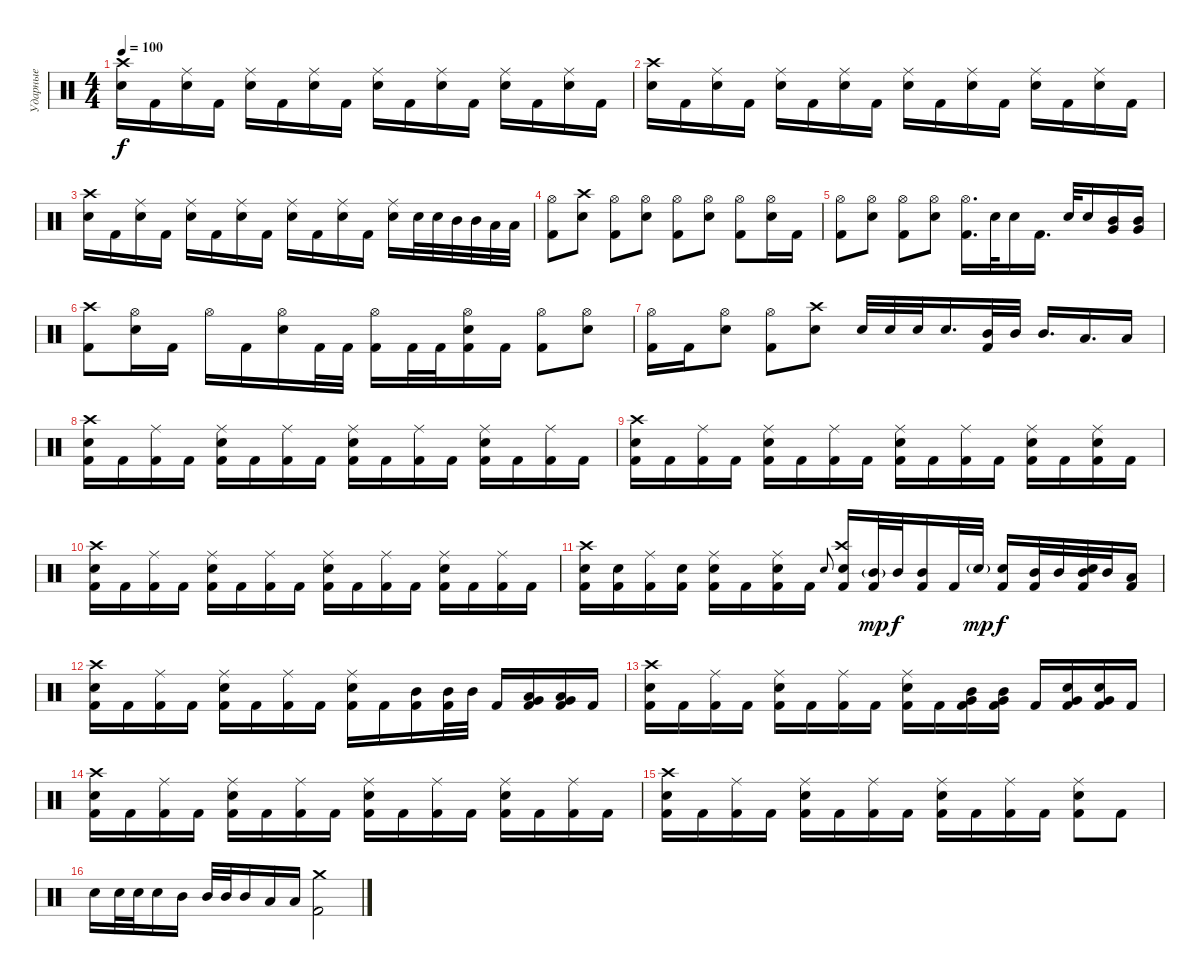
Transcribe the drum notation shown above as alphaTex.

\track ("Ударные" "Ударные") {instrument percussion}
\staff
\articulation defaults
\ts (4 4)
\tempo 100
\clef neutral
\ks c
("Electric Snare (hit)" "Crash high (hit)").16{dy f} "Kick (hit) 2".16 ("Electric Snare (hit)" "Ride (middle)").16 "Kick (hit) 2".16 ("Electric Snare (hit)" "Ride (middle)").16 "Kick (hit) 2".16 ("Electric Snare (hit)" "Ride (middle)").16 "Kick (hit) 2".16 ("Electric Snare (hit)" "Ride (middle)").16 "Kick (hit) 2".16 ("Electric Snare (hit)" "Ride (middle)").16 "Kick (hit) 2".16 ("Electric Snare (hit)" "Ride (middle)").16 "Kick (hit) 2".16 ("Electric Snare (hit)" "Ride (middle)").16 "Kick (hit) 2".16 |
("Electric Snare (hit)" "Crash high (hit)").16 "Kick (hit) 2".16 ("Electric Snare (hit)" "Ride (middle)").16 "Kick (hit) 2".16 ("Electric Snare (hit)" "Ride (middle)").16 "Kick (hit) 2".16 ("Electric Snare (hit)" "Ride (middle)").16 "Kick (hit) 2".16 ("Electric Snare (hit)" "Ride (middle)").16 "Kick (hit) 2".16 ("Electric Snare (hit)" "Ride (middle)").16 "Kick (hit) 2".16 ("Electric Snare (hit)" "Ride (middle)").16 "Kick (hit) 2".16 ("Electric Snare (hit)" "Ride (middle)").16 "Kick (hit) 2".16 |
("Electric Snare (hit)" "Crash high (hit)").16 "Kick (hit) 2".16 ("Electric Snare (hit)" "Ride (middle)").16 "Kick (hit) 2".16 ("Electric Snare (hit)" "Ride (middle)").16 "Kick (hit) 2".16 ("Electric Snare (hit)" "Ride (middle)").16 "Kick (hit) 2".16 ("Electric Snare (hit)" "Ride (middle)").16 "Kick (hit) 2".16 ("Electric Snare (hit)" "Ride (middle)").16 "Kick (hit) 2".16 ("Electric Snare (hit)" "Ride (middle)").16 "Electric Snare (hit)".32 "Electric Snare (hit)".32 "Mid Tom (hit)".32 "Mid Tom (hit)".32 "Low Tom (hit)".32 "Low Tom (hit)".32 |
("Kick (hit) 2" "Hi-Hat (open)").8 ("Electric Snare (hit)" "Crash high (hit)").8 ("Kick (hit) 2" "Hi-Hat (open)").8 ("Electric Snare (hit)" "Hi-Hat (open)").8 ("Kick (hit) 2" "Hi-Hat (open)").8 ("Electric Snare (hit)" "Hi-Hat (open)").8 ("Kick (hit) 2" "Hi-Hat (open)").8 ("Electric Snare (hit)" "Hi-Hat (open)").16 "Kick (hit) 2".16 |
("Kick (hit) 2" "Hi-Hat (open)").8 ("Electric Snare (hit)" "Hi-Hat (open)").8 ("Kick (hit) 2" "Hi-Hat (open)").8 ("Electric Snare (hit)" "Hi-Hat (open)").8 ("Kick (hit) 2" "Hi-Hat (open)").16{d} "Electric Snare (hit)".32 "Electric Snare (hit)".16 "Kick (hit) 2".16{d} "Electric Snare (hit)".32 "Electric Snare (hit)".16 ("Mid Tom (hit)" "Very Low Tom (hit)").16 ("Mid Tom (hit)" "Very Low Tom (hit)").16 |
("Kick (hit) 2" "Crash high (hit)").8 ("Electric Snare (hit)" "Hi-Hat (open)").16 "Kick (hit) 2".16 "Hi-Hat (open)".16 "Kick (hit) 2".16 ("Electric Snare (hit)" "Hi-Hat (open)").16 "Kick (hit) 2".32 "Kick (hit) 2".32 ("Kick (hit) 2" "Hi-Hat (open)").16 "Kick (hit) 2".32 "Kick (hit) 2".32 ("Electric Snare (hit)" "Hi-Hat (open)" "Kick (hit) 2").16 "Kick (hit) 2".16 ("Kick (hit) 2" "Hi-Hat (open)").8 ("Electric Snare (hit)" "Hi-Hat (open)").8 |
("Kick (hit) 2" "Hi-Hat (open)").16 "Kick (hit) 2".16 ("Electric Snare (hit)" "Hi-Hat (open)").8 ("Kick (hit) 2" "Hi-Hat (open)").8 ("Electric Snare (hit)" "Crash high (hit)").8 "Electric Snare (hit)".32 "Electric Snare (hit)".32 "Electric Snare (hit)".32 "Electric Snare (hit)".16{d} ("Kick (hit) 2" "Mid Tom (hit)").32 "Mid Tom (hit)".32 "Mid Tom (hit)".16{d} "Low Tom (hit)".16{d} "Low Tom (hit)".16 |
("Kick (hit) 2" "Electric Snare (hit)" "Crash high (hit)").16 "Kick (hit) 2".16 ("Kick (hit) 2" "Ride (middle)").16 "Kick (hit) 2".16 ("Kick (hit) 2" "Electric Snare (hit)" "Ride (middle)").16 "Kick (hit) 2".16 ("Kick (hit) 2" "Ride (middle)").16 "Kick (hit) 2".16 ("Kick (hit) 2" "Electric Snare (hit)" "Ride (middle)").16 "Kick (hit) 2".16 ("Kick (hit) 2" "Ride (middle)").16 "Kick (hit) 2".16 ("Kick (hit) 2" "Electric Snare (hit)" "Ride (middle)").16 "Kick (hit) 2".16 ("Kick (hit) 2" "Ride (middle)").16 "Kick (hit) 2".16 |
("Kick (hit) 2" "Crash high (hit)" "Electric Snare (hit)").16 "Kick (hit) 2".16 ("Kick (hit) 2" "Ride (middle)").16 "Kick (hit) 2".16 ("Kick (hit) 2" "Electric Snare (hit)" "Ride (middle)").16 "Kick (hit) 2".16 ("Kick (hit) 2" "Ride (middle)").16 "Kick (hit) 2".16 ("Kick (hit) 2" "Electric Snare (hit)" "Ride (middle)").16 "Kick (hit) 2".16 ("Kick (hit) 2" "Ride (middle)").16 "Kick (hit) 2".16 ("Kick (hit) 2" "Electric Snare (hit)" "Ride (middle)").16 "Kick (hit) 2".16 ("Kick (hit) 2" "Electric Snare (hit)" "Ride (middle)").16 "Kick (hit) 2".16 |
("Kick (hit) 2" "Electric Snare (hit)" "Crash high (hit)").16 "Kick (hit) 2".16 ("Kick (hit) 2" "Ride (middle)").16 "Kick (hit) 2".16 ("Kick (hit) 2" "Electric Snare (hit)" "Ride (middle)").16 "Kick (hit) 2".16 ("Kick (hit) 2" "Ride (middle)").16 "Kick (hit) 2".16 ("Kick (hit) 2" "Electric Snare (hit)" "Ride (middle)").16 "Kick (hit) 2".16 ("Kick (hit) 2" "Ride (middle)").16 "Kick (hit) 2".16 ("Kick (hit) 2" "Electric Snare (hit)" "Ride (middle)").16 "Kick (hit) 2".16 ("Kick (hit) 2" "Ride (middle)").16 "Kick (hit) 2".16 |
("Kick (hit) 2" "Crash high (hit)" "Electric Snare (hit)").16 ("Kick (hit) 2" "Electric Snare (hit)").16 ("Kick (hit) 2" "Ride (middle)").16 ("Kick (hit) 2" "Electric Snare (hit)").16 ("Kick (hit) 2" "Electric Snare (hit)" "Ride (middle)").16 "Kick (hit) 2".16 ("Kick (hit) 2" "Electric Snare (hit)" "Ride (middle)").16 "Kick (hit) 2".16 "Electric Snare (hit)".8{gr onbeat} ("Kick (hit) 2" "Electric Snare (hit)" "Crash high (hit)").16 ("Kick (hit) 2" "Mid Tom (hit)"{g}).32{dy mp} "Mid Tom (hit)".32{dy f} ("Kick (hit) 2" "Mid Tom (hit)").16 "Kick (hit) 2".32 "Electric Snare (hit)"{g}.32{dy mp} ("Kick (hit) 2" "Electric Snare (hit)").16{dy f} ("Kick (hit) 2" "Mid Tom (hit)").32 "Mid Tom (hit)".32 ("Kick (hit) 2" "Mid Tom (hit)" "Electric Snare (hit)").32 "Mid Tom (hit)".32 ("Kick (hit) 2" "Low Tom (hit)").16 |
("Kick (hit) 2" "Electric Snare (hit)" "Crash high (hit)").16 "Kick (hit) 2".16 ("Kick (hit) 2" "Ride (middle)").16 "Kick (hit) 2".16 ("Kick (hit) 2" "Electric Snare (hit)" "Ride (middle)").16 "Kick (hit) 2".16 ("Kick (hit) 2" "Ride (middle)").16 "Kick (hit) 2".16 ("Kick (hit) 2" "Electric Snare (hit)" "Ride (middle)").16 "Kick (hit) 2".16 ("Kick (hit) 2" "Mid Tom (hit)").16 ("Kick (hit) 2" "Mid Tom (hit)").32 "Mid Tom (hit)".32 "Kick (hit) 2".16 ("Kick (hit) 2" "Low Tom (hit)" "Very Low Tom (hit)").16 ("Kick (hit) 2" "Low Tom (hit)" "Very Low Tom (hit)").16 "Kick (hit) 2".16 |
("Kick (hit) 2" "Crash high (hit)" "Electric Snare (hit)").16 "Kick (hit) 2".16 ("Kick (hit) 2" "Ride (middle)").16 "Kick (hit) 2".16 ("Kick (hit) 2" "Electric Snare (hit)" "Ride (middle)").16 "Kick (hit) 2".16 ("Kick (hit) 2" "Ride (middle)").16 "Kick (hit) 2".16 ("Kick (hit) 2" "Electric Snare (hit)" "Ride (middle)").16 "Kick (hit) 2".16 ("Kick (hit) 2" "Mid Tom (hit)" "Very Low Tom (hit)").16 ("Kick (hit) 2" "Mid Tom (hit)" "Very Low Tom (hit)").16 "Kick (hit) 2".16 ("Kick (hit) 2" "Electric Snare (hit)" "Very Low Tom (hit)").16 ("Kick (hit) 2" "Electric Snare (hit)" "Very Low Tom (hit)").16 "Kick (hit) 2".16 |
("Kick (hit) 2" "Electric Snare (hit)" "Crash high (hit)").16 "Kick (hit) 2".16 ("Kick (hit) 2" "Ride (middle)").16 "Kick (hit) 2".16 ("Kick (hit) 2" "Electric Snare (hit)" "Ride (middle)").16 "Kick (hit) 2".16 ("Kick (hit) 2" "Ride (middle)").16 "Kick (hit) 2".16 ("Kick (hit) 2" "Electric Snare (hit)" "Ride (middle)").16 "Kick (hit) 2".16 ("Kick (hit) 2" "Ride (middle)").16 "Kick (hit) 2".16 ("Kick (hit) 2" "Electric Snare (hit)" "Ride (middle)").16 "Kick (hit) 2".16 ("Kick (hit) 2" "Ride (middle)").16 "Kick (hit) 2".16 |
("Kick (hit) 2" "Crash high (hit)" "Electric Snare (hit)").16 "Kick (hit) 2".16 ("Kick (hit) 2" "Ride (middle)").16 "Kick (hit) 2".16 ("Kick (hit) 2" "Electric Snare (hit)" "Ride (middle)").16 "Kick (hit) 2".16 ("Kick (hit) 2" "Ride (middle)").16 "Kick (hit) 2".16 ("Kick (hit) 2" "Electric Snare (hit)" "Ride (middle)").16 "Kick (hit) 2".16 ("Kick (hit) 2" "Ride (middle)").16 "Kick (hit) 2".16 ("Kick (hit) 2" "Electric Snare (hit)" "Ride (middle)").8 "Kick (hit) 2".8 |
"Electric Snare (hit)".16 "Electric Snare (hit)".32 "Electric Snare (hit)".32 "Electric Snare (hit)".16 "Mid Tom (hit)".16 "Mid Tom (hit)".32 "Mid Tom (hit)".32 "Mid Tom (hit)".16 "Low Tom (hit)".16 "Low Tom (hit)".16 ("Kick (hit) 2" "Crash medium (hit)").2
